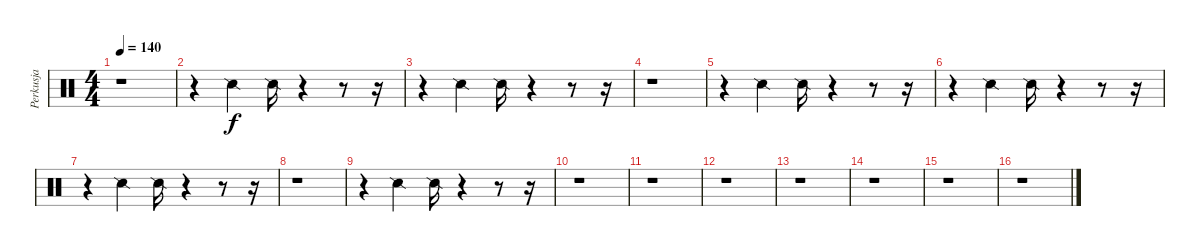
\track ("Perkusja" "Perkusja") {instrument percussion}
\staff {score}
\articulation defaults
\ts (4 4)
\tempo 140
\clef neutral
\ks c
r.1{dy f} |
r.4 "Snare (side stick) 2".4 "Snare (side stick) 2".16 r.4 r.8 r.16 |
r.4 "Snare (side stick) 2".4 "Snare (side stick) 2".16 r.4 r.8 r.16 |
r.1 |
r.4 "Snare (side stick) 2".4 "Snare (side stick) 2".16 r.4 r.8 r.16 |
r.4 "Snare (side stick) 2".4 "Snare (side stick) 2".16 r.4 r.8 r.16 |
r.4 "Snare (side stick) 2".4 "Snare (side stick) 2".16 r.4 r.8 r.16 |
r.1 |
r.4 "Snare (side stick) 2".4 "Snare (side stick) 2".16 r.4 r.8 r.16 |
r.1 |
r.1 |
r.1 |
r.1 |
r.1 |
r.1 |
r.1
